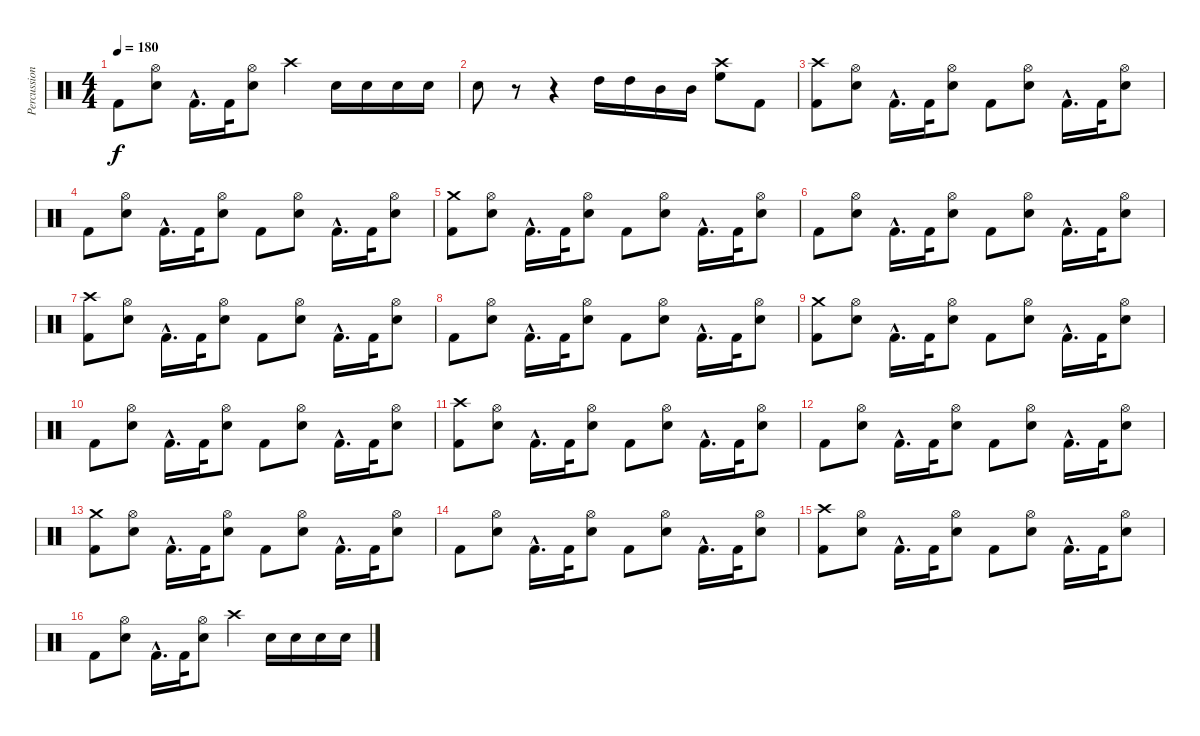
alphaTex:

\track ("Percussion" "Percussion") {instrument percussion}
\staff {score}
\articulation defaults
\ts (4 4)
\tempo 180
\clef neutral
\ks c "Kick (hit) 2".8{dy f}
("Hi-Hat (open)" "Snare (hit) 2").8 "Kick (hit) 2"{hac}.16{d} "Kick (hit) 2".32 ("Hi-Hat (open)" "Snare (hit) 2").8 "Crash high (hit)".4 "Snare (hit) 2".16 "Snare (hit) 2".16 "Snare (hit) 2".16 "Snare (hit) 2".16 |
"Snare (hit) 2".8 r.8 r.4 "High Tom (hit)".16 "High Tom (hit)".16 "Mid Tom (hit)".16 "Mid Tom (hit)".16 ("Crash high (hit)" "High Floor Tom (hit)").8 "Kick (hit) 2".8 |
("Crash high (hit)" "Kick (hit) 2").8 ("Hi-Hat (open)" "Snare (hit) 2").8 "Kick (hit) 2"{hac}.16{d} "Kick (hit) 2".32 ("Hi-Hat (open)" "Snare (hit) 2").8 "Kick (hit) 2".8 ("Hi-Hat (open)" "Snare (hit) 2").8 "Kick (hit) 2"{hac}.16{d} "Kick (hit) 2".32 ("Hi-Hat (open)" "Snare (hit) 2").8 |
"Kick (hit) 2".8 ("Hi-Hat (open)" "Snare (hit) 2").8 "Kick (hit) 2"{hac}.16{d} "Kick (hit) 2".32 ("Hi-Hat (open)" "Snare (hit) 2").8 "Kick (hit) 2".8 ("Hi-Hat (open)" "Snare (hit) 2").8 "Kick (hit) 2"{hac}.16{d} "Kick (hit) 2".32 ("Hi-Hat (open)" "Snare (hit) 2").8 |
("Crash medium (hit)" "Kick (hit) 2").8 ("Hi-Hat (open)" "Snare (hit) 2").8 "Kick (hit) 2"{hac}.16{d} "Kick (hit) 2".32 ("Hi-Hat (open)" "Snare (hit) 2").8 "Kick (hit) 2".8 ("Hi-Hat (open)" "Snare (hit) 2").8 "Kick (hit) 2"{hac}.16{d} "Kick (hit) 2".32 ("Hi-Hat (open)" "Snare (hit) 2").8 |
"Kick (hit) 2".8 ("Hi-Hat (open)" "Snare (hit) 2").8 "Kick (hit) 2"{hac}.16{d} "Kick (hit) 2".32 ("Hi-Hat (open)" "Snare (hit) 2").8 "Kick (hit) 2".8 ("Hi-Hat (open)" "Snare (hit) 2").8 "Kick (hit) 2"{hac}.16{d} "Kick (hit) 2".32 ("Hi-Hat (open)" "Snare (hit) 2").8 |
("Crash high (hit)" "Kick (hit) 2").8 ("Hi-Hat (open)" "Snare (hit) 2").8 "Kick (hit) 2"{hac}.16{d} "Kick (hit) 2".32 ("Hi-Hat (open)" "Snare (hit) 2").8 "Kick (hit) 2".8 ("Hi-Hat (open)" "Snare (hit) 2").8 "Kick (hit) 2"{hac}.16{d} "Kick (hit) 2".32 ("Hi-Hat (open)" "Snare (hit) 2").8 |
"Kick (hit) 2".8 ("Hi-Hat (open)" "Snare (hit) 2").8 "Kick (hit) 2"{hac}.16{d} "Kick (hit) 2".32 ("Hi-Hat (open)" "Snare (hit) 2").8 "Kick (hit) 2".8 ("Hi-Hat (open)" "Snare (hit) 2").8 "Kick (hit) 2"{hac}.16{d} "Kick (hit) 2".32 ("Hi-Hat (open)" "Snare (hit) 2").8 |
("Crash medium (hit)" "Kick (hit) 2").8 ("Hi-Hat (open)" "Snare (hit) 2").8 "Kick (hit) 2"{hac}.16{d} "Kick (hit) 2".32 ("Hi-Hat (open)" "Snare (hit) 2").8 "Kick (hit) 2".8 ("Hi-Hat (open)" "Snare (hit) 2").8 "Kick (hit) 2"{hac}.16{d} "Kick (hit) 2".32 ("Hi-Hat (open)" "Snare (hit) 2").8 |
"Kick (hit) 2".8 ("Hi-Hat (open)" "Snare (hit) 2").8 "Kick (hit) 2"{hac}.16{d} "Kick (hit) 2".32 ("Hi-Hat (open)" "Snare (hit) 2").8 "Kick (hit) 2".8 ("Hi-Hat (open)" "Snare (hit) 2").8 "Kick (hit) 2"{hac}.16{d} "Kick (hit) 2".32 ("Hi-Hat (open)" "Snare (hit) 2").8 |
("Crash high (hit)" "Kick (hit) 2").8 ("Hi-Hat (open)" "Snare (hit) 2").8 "Kick (hit) 2"{hac}.16{d} "Kick (hit) 2".32 ("Hi-Hat (open)" "Snare (hit) 2").8 "Kick (hit) 2".8 ("Hi-Hat (open)" "Snare (hit) 2").8 "Kick (hit) 2"{hac}.16{d} "Kick (hit) 2".32 ("Hi-Hat (open)" "Snare (hit) 2").8 |
"Kick (hit) 2".8 ("Hi-Hat (open)" "Snare (hit) 2").8 "Kick (hit) 2"{hac}.16{d} "Kick (hit) 2".32 ("Hi-Hat (open)" "Snare (hit) 2").8 "Kick (hit) 2".8 ("Hi-Hat (open)" "Snare (hit) 2").8 "Kick (hit) 2"{hac}.16{d} "Kick (hit) 2".32 ("Hi-Hat (open)" "Snare (hit) 2").8 |
("Crash medium (hit)" "Kick (hit) 2").8 ("Hi-Hat (open)" "Snare (hit) 2").8 "Kick (hit) 2"{hac}.16{d} "Kick (hit) 2".32 ("Hi-Hat (open)" "Snare (hit) 2").8 "Kick (hit) 2".8 ("Hi-Hat (open)" "Snare (hit) 2").8 "Kick (hit) 2"{hac}.16{d} "Kick (hit) 2".32 ("Hi-Hat (open)" "Snare (hit) 2").8 |
"Kick (hit) 2".8 ("Hi-Hat (open)" "Snare (hit) 2").8 "Kick (hit) 2"{hac}.16{d} "Kick (hit) 2".32 ("Hi-Hat (open)" "Snare (hit) 2").8 "Kick (hit) 2".8 ("Hi-Hat (open)" "Snare (hit) 2").8 "Kick (hit) 2"{hac}.16{d} "Kick (hit) 2".32 ("Hi-Hat (open)" "Snare (hit) 2").8 |
("Crash high (hit)" "Kick (hit) 2").8 ("Hi-Hat (open)" "Snare (hit) 2").8 "Kick (hit) 2"{hac}.16{d} "Kick (hit) 2".32 ("Hi-Hat (open)" "Snare (hit) 2").8 "Kick (hit) 2".8 ("Hi-Hat (open)" "Snare (hit) 2").8 "Kick (hit) 2"{hac}.16{d} "Kick (hit) 2".32 ("Hi-Hat (open)" "Snare (hit) 2").8 |
"Kick (hit) 2".8 ("Hi-Hat (open)" "Snare (hit) 2").8 "Kick (hit) 2"{hac}.16{d} "Kick (hit) 2".32 ("Hi-Hat (open)" "Snare (hit) 2").8 "Crash high (hit)".4 "Snare (hit) 2".16 "Snare (hit) 2".16 "Snare (hit) 2".16 "Snare (hit) 2".16
